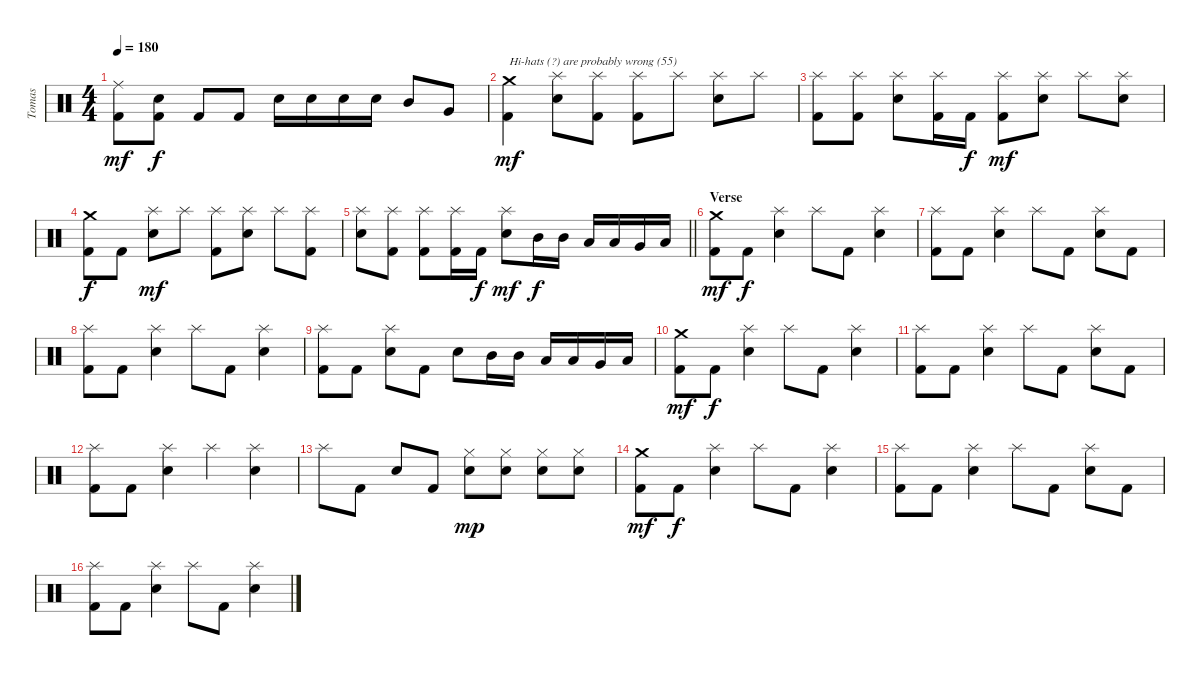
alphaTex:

\track ("Tomas" "Tomas") {instrument percussion}
\staff {score}
\articulation defaults
\ts (4 4)
\tempo 180
\clef neutral
\ks c
("Kick (hit) 2" "Ride (middle)").8{dy mf} ("Kick (hit) 2" "Electric Snare (hit)").8{dy f} "Kick (hit) 2".8 "Kick (hit) 2".8 "Electric Snare (hit)".16 "Electric Snare (hit)".16 "Electric Snare (hit)".16 "Electric Snare (hit)".16 "Mid Tom (hit)".8 "Very Low Tom (hit)".8 |
("Kick (hit) 2" "Crash medium (hit)").4{txt "Hi-hats (?) are probably wrong (55)" dy mf} ("Electric Snare (hit)" "Splash (hit)").8 ("Kick (hit) 2" "Splash (hit)").8 ("Kick (hit) 2" "Splash (hit)").8 "Splash (hit)".8 ("Electric Snare (hit)" "Splash (hit)").8 "Splash (hit)".8 |
("Kick (hit) 2" "Splash (hit)").8 ("Kick (hit) 2" "Splash (hit)").8 ("Electric Snare (hit)" "Splash (hit)").8 ("Kick (hit) 2" "Splash (hit)").16 "Kick (hit) 2".16{dy f} ("Kick (hit) 2" "Splash (hit)").8{dy mf} ("Electric Snare (hit)" "Splash (hit)").8 "Splash (hit)".8 ("Electric Snare (hit)" "Splash (hit)").8 |
("Kick (hit) 2" "Crash medium (hit)").8{dy f} "Kick (hit) 2".8 ("Electric Snare (hit)" "Splash (hit)").8{dy mf} "Splash (hit)".8 ("Kick (hit) 2" "Splash (hit)").8 ("Electric Snare (hit)" "Splash (hit)").8 "Splash (hit)".8 ("Kick (hit) 2" "Splash (hit)").8 |
\barLineRight lightlight
("Electric Snare (hit)" "Splash (hit)").8 ("Kick (hit) 2" "Splash (hit)").8 ("Kick (hit) 2" "Splash (hit)").8 ("Kick (hit) 2" "Splash (hit)").16 "Kick (hit) 2".16{dy f} ("Electric Snare (hit)" "Splash (hit)").8{dy mf} "Mid Tom (hit)".16{dy f} "Mid Tom (hit)".16 "Low Tom (hit)".16 "Low Tom (hit)".16 "Very Low Tom (hit)".16 "Low Floor Tom (hit)".16 |
\section ("" "Verse")
("Kick (hit) 2" "Crash medium (hit)").8{dy mf} "Kick (hit) 2".8{dy f} ("Electric Snare (hit)" "Splash (hit)").4 "Splash (hit)".8 "Kick (hit) 2".8 ("Electric Snare (hit)" "Splash (hit)").4 |
("Kick (hit) 2" "Splash (hit)").8 "Kick (hit) 2".8 ("Electric Snare (hit)" "Splash (hit)").4 "Splash (hit)".8 "Kick (hit) 2".8 ("Electric Snare (hit)" "Splash (hit)").8 "Kick (hit) 2".8 |
("Kick (hit) 2" "Splash (hit)").8 "Kick (hit) 2".8 ("Electric Snare (hit)" "Splash (hit)").4 "Splash (hit)".8 "Kick (hit) 2".8 ("Electric Snare (hit)" "Splash (hit)").4 |
("Kick (hit) 2" "Splash (hit)").8 "Kick (hit) 2".8 ("Electric Snare (hit)" "Splash (hit)").8 "Kick (hit) 2".8 "Electric Snare (hit)".8 "Mid Tom (hit)".16 "Mid Tom (hit)".16 "Low Tom (hit)".16 "Low Tom (hit)".16 "Very Low Tom (hit)".16 "Low Floor Tom (hit)".16 |
("Kick (hit) 2" "Crash medium (hit)").8{dy mf} "Kick (hit) 2".8{dy f} ("Electric Snare (hit)" "Splash (hit)").4 "Splash (hit)".8 "Kick (hit) 2".8 ("Electric Snare (hit)" "Splash (hit)").4 |
("Kick (hit) 2" "Splash (hit)").8 "Kick (hit) 2".8 ("Electric Snare (hit)" "Splash (hit)").4 "Splash (hit)".8 "Kick (hit) 2".8 ("Electric Snare (hit)" "Splash (hit)").8 "Kick (hit) 2".8 |
("Kick (hit) 2" "Splash (hit)").8 "Kick (hit) 2".8 ("Electric Snare (hit)" "Splash (hit)").4 "Splash (hit)".4 ("Electric Snare (hit)" "Splash (hit)").4 |
"Splash (hit)".8 "Kick (hit) 2".8 "Electric Snare (hit)".8 "Kick (hit) 2".8 ("Electric Snare (hit)" "Hi-Hat (closed)").8{dy mp} ("Electric Snare (hit)" "Hi-Hat (closed)").8 ("Electric Snare (hit)" "Hi-Hat (closed)").8 ("Electric Snare (hit)" "Hi-Hat (closed)").8 |
("Kick (hit) 2" "Crash medium (hit)").8{dy mf} "Kick (hit) 2".8{dy f} ("Electric Snare (hit)" "Splash (hit)").4 "Splash (hit)".8 "Kick (hit) 2".8 ("Electric Snare (hit)" "Splash (hit)").4 |
("Kick (hit) 2" "Splash (hit)").8 "Kick (hit) 2".8 ("Electric Snare (hit)" "Splash (hit)").4 "Splash (hit)".8 "Kick (hit) 2".8 ("Electric Snare (hit)" "Splash (hit)").8 "Kick (hit) 2".8 |
("Kick (hit) 2" "Splash (hit)").8 "Kick (hit) 2".8 ("Electric Snare (hit)" "Splash (hit)").4 "Splash (hit)".8 "Kick (hit) 2".8 ("Electric Snare (hit)" "Splash (hit)").4
